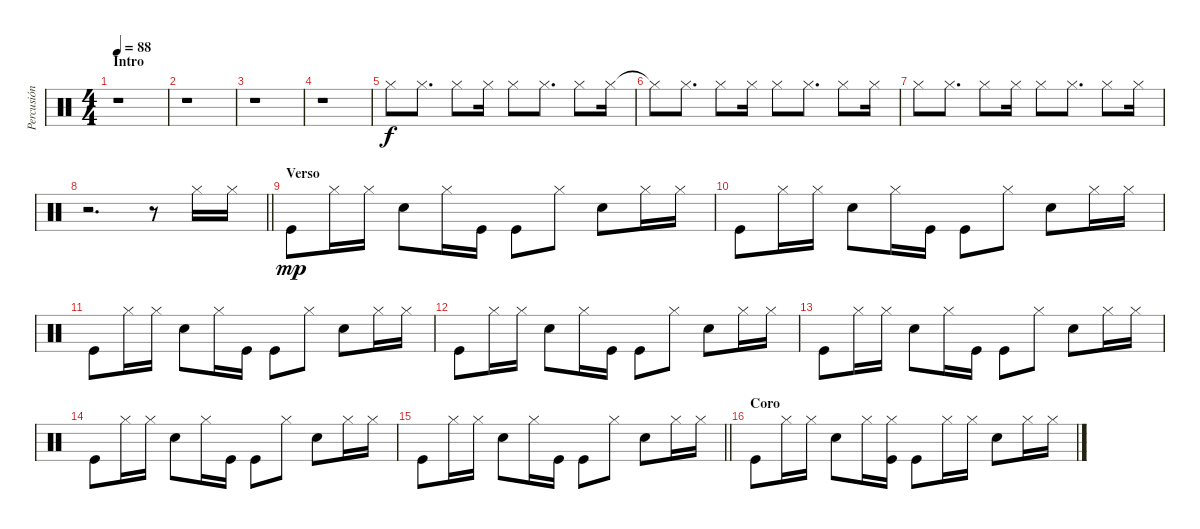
\track ("Percusión" "Percusión") {instrument percussion}
\staff {score}
\articulation defaults
\ts (4 4)
\section ("" "Intro")
\tempo 88
\clef neutral
\ks c
r.1{dy f} |
r.1 |
r.1 |
r.1 |
"Hi-Hat (closed)".8 "Hi-Hat (closed)".8{d} "Hi-Hat (closed)".8 "Hi-Hat (closed)".16 "Hi-Hat (closed)".8 "Hi-Hat (closed)".8{d} "Hi-Hat (closed)".8 "Hi-Hat (closed)".16 |
"Hi-Hat (closed)"{t}.8 "Hi-Hat (closed)".8{d} "Hi-Hat (closed)".8 "Hi-Hat (closed)".16 "Hi-Hat (closed)".8 "Hi-Hat (closed)".8{d} "Hi-Hat (closed)".8 "Hi-Hat (closed)".16 |
"Hi-Hat (closed)".8 "Hi-Hat (closed)".8{d} "Hi-Hat (closed)".8 "Hi-Hat (closed)".16 "Hi-Hat (closed)".8 "Hi-Hat (closed)".8{d} "Hi-Hat (closed)".8 "Hi-Hat (closed)".16 |
\barLineRight lightlight
r.2{d} r.8 "Hi-Hat (closed)".16 "Hi-Hat (closed)".16 |
\section ("" "Verso")
"Kick (hit)".8{dy mp} "Hi-Hat (closed)".16 "Hi-Hat (closed)".16 "Snare (hit) 2".8 "Hi-Hat (closed)".16 "Kick (hit)".16 "Kick (hit)".8 "Hi-Hat (closed)".8 "Snare (hit) 2".8 "Hi-Hat (closed)".16 "Hi-Hat (closed)".16 |
"Kick (hit)".8 "Hi-Hat (closed)".16 "Hi-Hat (closed)".16 "Snare (hit) 2".8 "Hi-Hat (closed)".16 "Kick (hit)".16 "Kick (hit)".8 "Hi-Hat (closed)".8 "Snare (hit) 2".8 "Hi-Hat (closed)".16 "Hi-Hat (closed)".16 |
"Kick (hit)".8 "Hi-Hat (closed)".16 "Hi-Hat (closed)".16 "Snare (hit) 2".8 "Hi-Hat (closed)".16 "Kick (hit)".16 "Kick (hit)".8 "Hi-Hat (closed)".8 "Snare (hit) 2".8 "Hi-Hat (closed)".16 "Hi-Hat (closed)".16 |
"Kick (hit)".8 "Hi-Hat (closed)".16 "Hi-Hat (closed)".16 "Snare (hit) 2".8 "Hi-Hat (closed)".16 "Kick (hit)".16 "Kick (hit)".8 "Hi-Hat (closed)".8 "Snare (hit) 2".8 "Hi-Hat (closed)".16 "Hi-Hat (closed)".16 |
"Kick (hit)".8 "Hi-Hat (closed)".16 "Hi-Hat (closed)".16 "Snare (hit) 2".8 "Hi-Hat (closed)".16 "Kick (hit)".16 "Kick (hit)".8 "Hi-Hat (closed)".8 "Snare (hit) 2".8 "Hi-Hat (closed)".16 "Hi-Hat (closed)".16 |
"Kick (hit)".8 "Hi-Hat (closed)".16 "Hi-Hat (closed)".16 "Snare (hit) 2".8 "Hi-Hat (closed)".16 "Kick (hit)".16 "Kick (hit)".8 "Hi-Hat (closed)".8 "Snare (hit) 2".8 "Hi-Hat (closed)".16 "Hi-Hat (closed)".16 |
\barLineRight lightlight "Kick (hit)".8 "Hi-Hat (closed)".16 "Hi-Hat (closed)".16 "Snare (hit) 2".8 "Hi-Hat (closed)".16 "Kick (hit)".16 "Kick (hit)".8 "Hi-Hat (closed)".8 "Snare (hit) 2".8 "Hi-Hat (closed)".16 "Hi-Hat (closed)".16
|
\section ("" "Coro")
"Kick (hit)".8 "Hi-Hat (closed)".16 "Hi-Hat (closed)".16 "Snare (hit) 2".8 "Hi-Hat (closed)".16 ("Kick (hit)" "Hi-Hat (closed)").16 "Kick (hit)".8 "Hi-Hat (closed)".16 "Hi-Hat (closed)".16 "Snare (hit) 2".8 "Hi-Hat (closed)".16 "Hi-Hat (closed)".16
